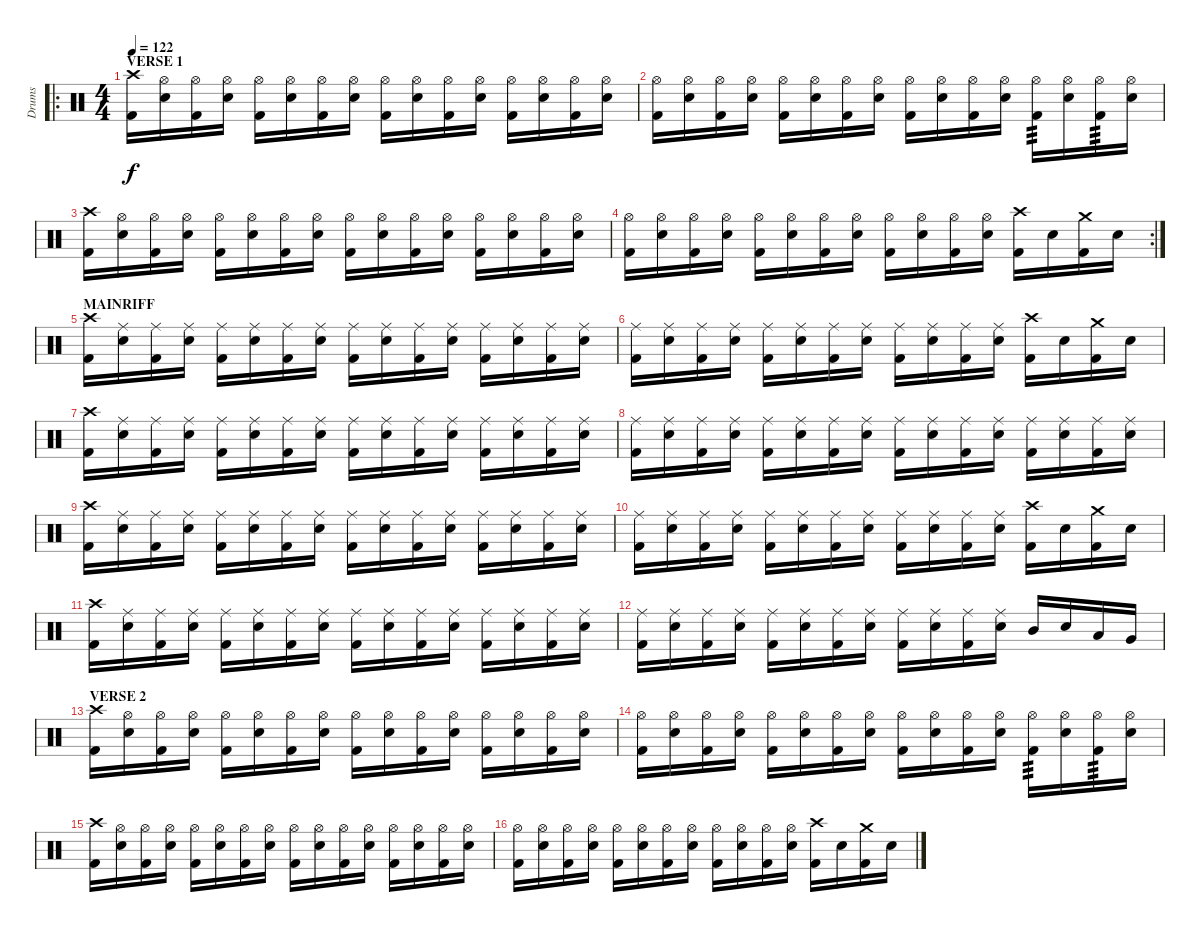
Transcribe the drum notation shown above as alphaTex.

\track ("Drums" "Drums") {instrument percussion}
\staff {score}
\articulation defaults
\ro
\ts (4 4)
\section ("" "VERSE 1")
\tempo 122
\clef neutral
\ks c
("Crash high (hit)" "Kick (hit) 2").16{dy f} ("Hi-Hat (open)" "Electric Snare (hit)").16 ("Hi-Hat (open)" "Kick (hit) 2").16 ("Hi-Hat (open)" "Electric Snare (hit)").16 ("Hi-Hat (open)" "Kick (hit) 2").16 ("Hi-Hat (open)" "Electric Snare (hit)").16 ("Hi-Hat (open)" "Kick (hit) 2").16 ("Hi-Hat (open)" "Electric Snare (hit)").16 ("Hi-Hat (open)" "Kick (hit) 2").16 ("Hi-Hat (open)" "Electric Snare (hit)").16 ("Hi-Hat (open)" "Kick (hit) 2").16 ("Hi-Hat (open)" "Electric Snare (hit)").16 ("Hi-Hat (open)" "Kick (hit) 2").16 ("Hi-Hat (open)" "Electric Snare (hit)").16 ("Hi-Hat (open)" "Kick (hit) 2").16 ("Hi-Hat (open)" "Electric Snare (hit)").16 |
("Hi-Hat (open)" "Kick (hit) 2").16 ("Hi-Hat (open)" "Electric Snare (hit)").16 ("Hi-Hat (open)" "Kick (hit) 2").16 ("Hi-Hat (open)" "Electric Snare (hit)").16 ("Hi-Hat (open)" "Kick (hit) 2").16 ("Hi-Hat (open)" "Electric Snare (hit)").16 ("Hi-Hat (open)" "Kick (hit) 2").16 ("Hi-Hat (open)" "Electric Snare (hit)").16 ("Hi-Hat (open)" "Kick (hit) 2").16 ("Hi-Hat (open)" "Electric Snare (hit)").16 ("Hi-Hat (open)" "Kick (hit) 2").16 ("Hi-Hat (open)" "Electric Snare (hit)").16 ("Hi-Hat (open)" "Kick (hit) 2").16{tp 3} ("Hi-Hat (open)" "Electric Snare (hit)").16 ("Hi-Hat (open)" "Kick (hit) 2").16{tp 3} ("Hi-Hat (open)" "Electric Snare (hit)").16 |
("Crash high (hit)" "Kick (hit) 2").16 ("Hi-Hat (open)" "Electric Snare (hit)").16 ("Hi-Hat (open)" "Kick (hit) 2").16 ("Hi-Hat (open)" "Electric Snare (hit)").16 ("Hi-Hat (open)" "Kick (hit) 2").16 ("Hi-Hat (open)" "Electric Snare (hit)").16 ("Hi-Hat (open)" "Kick (hit) 2").16 ("Hi-Hat (open)" "Electric Snare (hit)").16 ("Hi-Hat (open)" "Kick (hit) 2").16 ("Hi-Hat (open)" "Electric Snare (hit)").16 ("Hi-Hat (open)" "Kick (hit) 2").16 ("Hi-Hat (open)" "Electric Snare (hit)").16 ("Hi-Hat (open)" "Kick (hit) 2").16 ("Hi-Hat (open)" "Electric Snare (hit)").16 ("Hi-Hat (open)" "Kick (hit) 2").16 ("Hi-Hat (open)" "Electric Snare (hit)").16 |
\rc 2
("Hi-Hat (open)" "Kick (hit) 2").16 ("Hi-Hat (open)" "Electric Snare (hit)").16 ("Hi-Hat (open)" "Kick (hit) 2").16 ("Hi-Hat (open)" "Electric Snare (hit)").16 ("Hi-Hat (open)" "Kick (hit) 2").16 ("Hi-Hat (open)" "Electric Snare (hit)").16 ("Hi-Hat (open)" "Kick (hit) 2").16 ("Hi-Hat (open)" "Electric Snare (hit)").16 ("Hi-Hat (open)" "Kick (hit) 2").16 ("Hi-Hat (open)" "Electric Snare (hit)").16 ("Hi-Hat (open)" "Kick (hit) 2").16 ("Hi-Hat (open)" "Electric Snare (hit)").16 ("Crash high (hit)" "Kick (hit) 2").16 "Electric Snare (hit)".16 ("Crash medium (hit)" "Kick (hit) 2").16 "Electric Snare (hit)".16 |
\section ("" "MAINRIFF")
("Crash high (hit)" "Kick (hit) 2").16 ("Ride (middle)" "Electric Snare (hit)").16 ("Ride (middle)" "Kick (hit) 2").16 ("Ride (middle)" "Electric Snare (hit)").16 ("Ride (middle)" "Kick (hit) 2").16 ("Ride (middle)" "Electric Snare (hit)").16 ("Ride (middle)" "Kick (hit) 2").16 ("Ride (middle)" "Electric Snare (hit)").16 ("Ride (middle)" "Kick (hit) 2").16 ("Ride (middle)" "Electric Snare (hit)").16 ("Ride (middle)" "Kick (hit) 2").16 ("Ride (middle)" "Electric Snare (hit)").16 ("Ride (middle)" "Kick (hit) 2").16 ("Ride (middle)" "Electric Snare (hit)").16 ("Ride (middle)" "Kick (hit) 2").16 ("Ride (middle)" "Electric Snare (hit)").16 |
("Ride (middle)" "Kick (hit) 2").16 ("Ride (middle)" "Electric Snare (hit)").16 ("Ride (middle)" "Kick (hit) 2").16 ("Ride (middle)" "Electric Snare (hit)").16 ("Ride (middle)" "Kick (hit) 2").16 ("Ride (middle)" "Electric Snare (hit)").16 ("Ride (middle)" "Kick (hit) 2").16 ("Ride (middle)" "Electric Snare (hit)").16 ("Ride (middle)" "Kick (hit) 2").16 ("Ride (middle)" "Electric Snare (hit)").16 ("Ride (middle)" "Kick (hit) 2").16 ("Ride (middle)" "Electric Snare (hit)").16 ("Crash high (hit)" "Kick (hit) 2").16 "Electric Snare (hit)".16 ("Crash medium (hit)" "Kick (hit) 2").16 "Electric Snare (hit)".16 |
("Crash high (hit)" "Kick (hit) 2").16 ("Ride (middle)" "Electric Snare (hit)").16 ("Ride (middle)" "Kick (hit) 2").16 ("Ride (middle)" "Electric Snare (hit)").16 ("Ride (middle)" "Kick (hit) 2").16 ("Ride (middle)" "Electric Snare (hit)").16 ("Ride (middle)" "Kick (hit) 2").16 ("Ride (middle)" "Electric Snare (hit)").16 ("Ride (middle)" "Kick (hit) 2").16 ("Ride (middle)" "Electric Snare (hit)").16 ("Ride (middle)" "Kick (hit) 2").16 ("Ride (middle)" "Electric Snare (hit)").16 ("Ride (middle)" "Kick (hit) 2").16 ("Ride (middle)" "Electric Snare (hit)").16 ("Ride (middle)" "Kick (hit) 2").16 ("Ride (middle)" "Electric Snare (hit)").16 |
("Ride (middle)" "Kick (hit) 2").16 ("Ride (middle)" "Electric Snare (hit)").16 ("Ride (middle)" "Kick (hit) 2").16 ("Ride (middle)" "Electric Snare (hit)").16 ("Ride (middle)" "Kick (hit) 2").16 ("Ride (middle)" "Electric Snare (hit)").16 ("Ride (middle)" "Kick (hit) 2").16 ("Ride (middle)" "Electric Snare (hit)").16 ("Ride (middle)" "Kick (hit) 2").16 ("Ride (middle)" "Electric Snare (hit)").16 ("Ride (middle)" "Kick (hit) 2").16 ("Ride (middle)" "Electric Snare (hit)").16 ("Ride (middle)" "Kick (hit) 2").16 ("Ride (middle)" "Electric Snare (hit)").16 ("Ride (middle)" "Kick (hit) 2").16 ("Ride (middle)" "Electric Snare (hit)").16 |
("Crash high (hit)" "Kick (hit) 2").16 ("Ride (middle)" "Electric Snare (hit)").16 ("Ride (middle)" "Kick (hit) 2").16 ("Ride (middle)" "Electric Snare (hit)").16 ("Ride (middle)" "Kick (hit) 2").16 ("Ride (middle)" "Electric Snare (hit)").16 ("Ride (middle)" "Kick (hit) 2").16 ("Ride (middle)" "Electric Snare (hit)").16 ("Ride (middle)" "Kick (hit) 2").16 ("Ride (middle)" "Electric Snare (hit)").16 ("Ride (middle)" "Kick (hit) 2").16 ("Ride (middle)" "Electric Snare (hit)").16 ("Ride (middle)" "Kick (hit) 2").16 ("Ride (middle)" "Electric Snare (hit)").16 ("Ride (middle)" "Kick (hit) 2").16 ("Ride (middle)" "Electric Snare (hit)").16 |
("Ride (middle)" "Kick (hit) 2").16 ("Ride (middle)" "Electric Snare (hit)").16 ("Ride (middle)" "Kick (hit) 2").16 ("Ride (middle)" "Electric Snare (hit)").16 ("Ride (middle)" "Kick (hit) 2").16 ("Ride (middle)" "Electric Snare (hit)").16 ("Ride (middle)" "Kick (hit) 2").16 ("Ride (middle)" "Electric Snare (hit)").16 ("Ride (middle)" "Kick (hit) 2").16 ("Ride (middle)" "Electric Snare (hit)").16 ("Ride (middle)" "Kick (hit) 2").16 ("Ride (middle)" "Electric Snare (hit)").16 ("Crash high (hit)" "Kick (hit) 2").16 "Electric Snare (hit)".16 ("Crash medium (hit)" "Kick (hit) 2").16 "Electric Snare (hit)".16 |
("Crash high (hit)" "Kick (hit) 2").16 ("Ride (middle)" "Electric Snare (hit)").16 ("Ride (middle)" "Kick (hit) 2").16 ("Ride (middle)" "Electric Snare (hit)").16 ("Ride (middle)" "Kick (hit) 2").16 ("Ride (middle)" "Electric Snare (hit)").16 ("Ride (middle)" "Kick (hit) 2").16 ("Ride (middle)" "Electric Snare (hit)").16 ("Ride (middle)" "Kick (hit) 2").16 ("Ride (middle)" "Electric Snare (hit)").16 ("Ride (middle)" "Kick (hit) 2").16 ("Ride (middle)" "Electric Snare (hit)").16 ("Ride (middle)" "Kick (hit) 2").16 ("Ride (middle)" "Electric Snare (hit)").16 ("Ride (middle)" "Kick (hit) 2").16 ("Ride (middle)" "Electric Snare (hit)").16 |
("Ride (middle)" "Kick (hit) 2").16 ("Ride (middle)" "Electric Snare (hit)").16 ("Ride (middle)" "Kick (hit) 2").16 ("Ride (middle)" "Electric Snare (hit)").16 ("Ride (middle)" "Kick (hit) 2").16 ("Ride (middle)" "Electric Snare (hit)").16 ("Ride (middle)" "Kick (hit) 2").16 ("Ride (middle)" "Electric Snare (hit)").16 ("Ride (middle)" "Kick (hit) 2").16 ("Ride (middle)" "Electric Snare (hit)").16 ("Ride (middle)" "Kick (hit) 2").16 ("Ride (middle)" "Electric Snare (hit)").16 "Mid Tom (hit)".16 "Electric Snare (hit)".16 "Low Tom (hit)".16 "Very Low Tom (hit)".16 |
\section ("" "VERSE 2")
("Crash high (hit)" "Kick (hit) 2").16 ("Hi-Hat (open)" "Electric Snare (hit)").16 ("Hi-Hat (open)" "Kick (hit) 2").16 ("Hi-Hat (open)" "Electric Snare (hit)").16 ("Hi-Hat (open)" "Kick (hit) 2").16 ("Hi-Hat (open)" "Electric Snare (hit)").16 ("Hi-Hat (open)" "Kick (hit) 2").16 ("Hi-Hat (open)" "Electric Snare (hit)").16 ("Hi-Hat (open)" "Kick (hit) 2").16 ("Hi-Hat (open)" "Electric Snare (hit)").16 ("Hi-Hat (open)" "Kick (hit) 2").16 ("Hi-Hat (open)" "Electric Snare (hit)").16 ("Hi-Hat (open)" "Kick (hit) 2").16 ("Hi-Hat (open)" "Electric Snare (hit)").16 ("Hi-Hat (open)" "Kick (hit) 2").16 ("Hi-Hat (open)" "Electric Snare (hit)").16 |
("Hi-Hat (open)" "Kick (hit) 2").16 ("Hi-Hat (open)" "Electric Snare (hit)").16 ("Hi-Hat (open)" "Kick (hit) 2").16 ("Hi-Hat (open)" "Electric Snare (hit)").16 ("Hi-Hat (open)" "Kick (hit) 2").16 ("Hi-Hat (open)" "Electric Snare (hit)").16 ("Hi-Hat (open)" "Kick (hit) 2").16 ("Hi-Hat (open)" "Electric Snare (hit)").16 ("Hi-Hat (open)" "Kick (hit) 2").16 ("Hi-Hat (open)" "Electric Snare (hit)").16 ("Hi-Hat (open)" "Kick (hit) 2").16 ("Hi-Hat (open)" "Electric Snare (hit)").16 ("Hi-Hat (open)" "Kick (hit) 2").16{tp 3} ("Hi-Hat (open)" "Electric Snare (hit)").16 ("Hi-Hat (open)" "Kick (hit) 2").16{tp 3} ("Hi-Hat (open)" "Electric Snare (hit)").16 |
("Crash high (hit)" "Kick (hit) 2").16 ("Hi-Hat (open)" "Electric Snare (hit)").16 ("Hi-Hat (open)" "Kick (hit) 2").16 ("Hi-Hat (open)" "Electric Snare (hit)").16 ("Hi-Hat (open)" "Kick (hit) 2").16 ("Hi-Hat (open)" "Electric Snare (hit)").16 ("Hi-Hat (open)" "Kick (hit) 2").16 ("Hi-Hat (open)" "Electric Snare (hit)").16 ("Hi-Hat (open)" "Kick (hit) 2").16 ("Hi-Hat (open)" "Electric Snare (hit)").16 ("Hi-Hat (open)" "Kick (hit) 2").16 ("Hi-Hat (open)" "Electric Snare (hit)").16 ("Hi-Hat (open)" "Kick (hit) 2").16 ("Hi-Hat (open)" "Electric Snare (hit)").16 ("Hi-Hat (open)" "Kick (hit) 2").16 ("Hi-Hat (open)" "Electric Snare (hit)").16 |
("Hi-Hat (open)" "Kick (hit) 2").16 ("Hi-Hat (open)" "Electric Snare (hit)").16 ("Hi-Hat (open)" "Kick (hit) 2").16 ("Hi-Hat (open)" "Electric Snare (hit)").16 ("Hi-Hat (open)" "Kick (hit) 2").16 ("Hi-Hat (open)" "Electric Snare (hit)").16 ("Hi-Hat (open)" "Kick (hit) 2").16 ("Hi-Hat (open)" "Electric Snare (hit)").16 ("Hi-Hat (open)" "Kick (hit) 2").16 ("Hi-Hat (open)" "Electric Snare (hit)").16 ("Hi-Hat (open)" "Kick (hit) 2").16 ("Hi-Hat (open)" "Electric Snare (hit)").16 ("Crash high (hit)" "Kick (hit) 2").16 "Electric Snare (hit)".16 ("Crash medium (hit)" "Kick (hit) 2").16 "Electric Snare (hit)".16
